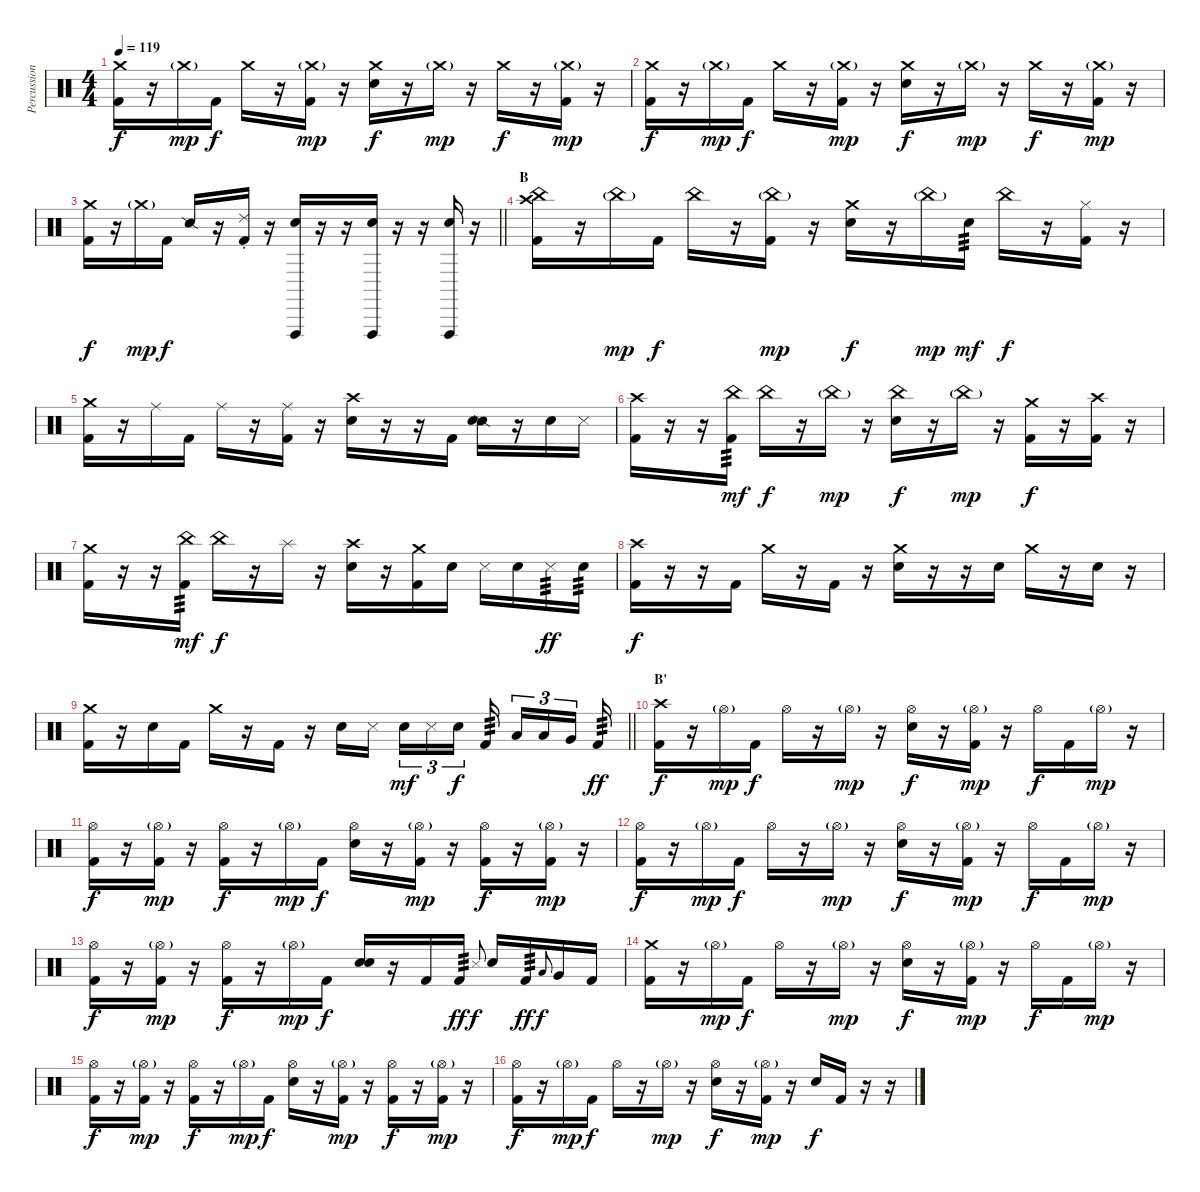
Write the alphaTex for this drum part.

\track ("Percussion" "Percussion") {instrument percussion}
\staff {score}
\articulation defaults
\ts (4 4)
\tempo 119
\clef neutral
\ks c
("Crash medium (hit)" "Kick (hit) 2").16{dy f} r.16 "Crash medium (hit)"{g}.16{dy mp} "Kick (hit) 2".16{dy f} "Crash medium (hit)".16 r.16 ("Crash medium (hit)"{g} "Kick (hit) 2").16{dy mp} r.16 ("Crash medium (hit)" "Snare (hit) 2").16{dy f} r.16 "Crash medium (hit)"{g}.16{dy mp} r.16 "Crash medium (hit)".16{dy f} r.16 ("Crash medium (hit)"{g} "Kick (hit) 2").16{dy mp} r.16 |
("Crash medium (hit)" "Kick (hit) 2").16{dy f} r.16 "Crash medium (hit)"{g}.16{dy mp} "Kick (hit) 2".16{dy f} "Crash medium (hit)".16 r.16 ("Crash medium (hit)"{g} "Kick (hit) 2").16{dy mp} r.16 ("Crash medium (hit)" "Snare (hit) 2").16{dy f} r.16 "Crash medium (hit)"{g}.16{dy mp} r.16 "Crash medium (hit)".16{dy f} r.16 ("Crash medium (hit)"{g} "Kick (hit) 2").16{dy mp} r.16 |
\barLineRight lightlight
("Crash medium (hit)" "Kick (hit) 2").16{dy f} r.16 "Crash medium (hit)"{g}.16{dy mp} "Kick (hit) 2".16{dy f} "Snare (side stick) 2".16 r.16 ("Ride (choke) 2" "Kick (hit) 2").16 r.16 ("Vibraslap (hit)" "Snare (hit) 2").16 r.16 r.16 ("Vibraslap (hit)" "Snare (hit) 2").16 r.16 r.16 ("Vibraslap (hit)" "Snare (hit) 2").16 r.16 |
\section ("" "B")
("Crash high (hit)" "China (hit)" "Kick (hit) 2").16 r.16 "China (hit)"{g}.16{dy mp} "Kick (hit) 2".16{dy f} "China (hit)".16 r.16 ("China (hit)"{g} "Kick (hit) 2").16{dy mp} r.16 ("Crash medium (hit)" "Snare (hit) 2").16{dy f} r.16 "China (hit)"{g}.16{dy mp} "Snare (hit) 2".16{tp 3 dy mf} "China (hit)".16{dy f} r.16 ("Hi-Hat (closed)" "Kick (hit) 2").16 r.16 |
("Crash medium (hit)" "Kick (hit) 2").16 r.16 "Ride (middle)".16 "Kick (hit) 2".16 "Ride (middle)".16 r.16 ("Ride (middle)" "Kick (hit) 2").16 r.16 ("Crash high (hit)" "Snare (hit) 2").16 r.16 r.16 "Kick (hit) 2".16 ("Snare (side stick) 2" "Snare (hit) 2").16 r.16 "Snare (hit) 2".16 "Metronome (hit)".16 |
("Crash high (hit)" "Kick (hit) 2").16 r.16 r.16 ("China (hit)" "Kick (hit) 2").16{tp 3 dy mf} "China (hit)".16{dy f} r.16 "China (hit)"{g}.16{dy mp} r.16 ("China (hit)" "Snare (hit) 2").16{dy f} r.16 "China (hit)"{g}.16{dy mp} r.16 ("Crash medium (hit)" "Kick (hit) 2").16{dy f} r.16 ("Crash high (hit)" "Kick (hit) 2").16 r.16 |
("Crash medium (hit)" "Kick (hit) 2").16 r.16 r.16 ("China (hit)" "Kick (hit) 2").16{tp 3 dy mf} "China (hit)".16{dy f} r.16 "Splash (hit)".16 r.16 ("Crash high (hit)" "Snare (hit) 2").16 r.16 ("Crash medium (hit)" "Kick (hit) 2").16 "Snare (hit) 2".16 "Metronome (hit)".16 "Snare (hit) 2".16 "Metronome (hit)".16{tp 3 dy ff} "Snare (hit) 2".16{tp 3} |
("Crash high (hit)" "Kick (hit) 2").16{dy f} r.16 r.16 "Kick (hit) 2".16 "Crash medium (hit)".16 r.16 "Kick (hit) 2".16 r.16 ("Crash medium (hit)" "Snare (hit) 2").16 r.16 r.16 "Snare (hit) 2".16 "Crash medium (hit)".16 r.16 "Snare (hit) 2".16 r.16 |
\barLineRight lightlight
("Crash medium (hit)" "Kick (hit) 2").16 r.16 "Snare (hit) 2".16 "Kick (hit) 2".16 "Crash medium (hit)".16 r.16 "Kick (hit) 2".16 r.16 "Snare (hit) 2".16 "Metronome (hit)".16{beam splitsecondary} "Snare (hit) 2".16{tu (3 2) dy mf} "Metronome (hit)".16{tu (3 2)} "Snare (hit) 2".16{tu (3 2) dy f} "Kick (hit) 2".16{tp 3 beam splitsecondary} "Low Tom (hit)".16{tu (3 2)} "Low Tom (hit)".16{tu (3 2)} "Very Low Tom (hit)".16{tu (3 2) beam splitsecondary} "Kick (hit) 2".16{tp 3 dy ff} |
\section ("" "B'")
("Crash high (hit)" "Kick (hit) 2").16{dy f} r.16 "Hi-Hat (open)"{g}.16{dy mp} "Kick (hit) 2".16{dy f} "Hi-Hat (open)".16 r.16 "Hi-Hat (open)"{g}.16{dy mp} r.16 ("Hi-Hat (open)" "Snare (hit) 2").16{dy f} r.16 ("Hi-Hat (open)"{g} "Kick (hit) 2").16{dy mp} r.16 "Hi-Hat (open)".16{dy f} "Kick (hit) 2".16 "Hi-Hat (open)"{g}.16{dy mp} r.16 |
("Hi-Hat (open)" "Kick (hit) 2").16{dy f} r.16 ("Hi-Hat (open)"{g} "Kick (hit) 2").16{dy mp} r.16 ("Hi-Hat (open)" "Kick (hit) 2").16{dy f} r.16 "Hi-Hat (open)"{g}.16{dy mp} "Kick (hit) 2".16{dy f} ("Hi-Hat (open)" "Snare (hit) 2").16 r.16 ("Hi-Hat (open)"{g} "Kick (hit) 2").16{dy mp} r.16 ("Hi-Hat (open)" "Kick (hit) 2").16{dy f} r.16 ("Hi-Hat (open)"{g} "Kick (hit) 2").16{dy mp} r.16 |
("Hi-Hat (open)" "Kick (hit) 2").16{dy f} r.16 "Hi-Hat (open)"{g}.16{dy mp} "Kick (hit) 2".16{dy f} "Hi-Hat (open)".16 r.16 "Hi-Hat (open)"{g}.16{dy mp} r.16 ("Hi-Hat (open)" "Snare (hit) 2").16{dy f} r.16 ("Hi-Hat (open)"{g} "Kick (hit) 2").16{dy mp} r.16 "Hi-Hat (open)".16{dy f} "Kick (hit) 2".16 "Hi-Hat (open)"{g}.16{dy mp} r.16 |
("Hi-Hat (open)" "Kick (hit) 2").16{dy f} r.16 ("Hi-Hat (open)"{g} "Kick (hit) 2").16{dy mp} r.16 ("Hi-Hat (open)" "Kick (hit) 2").16{dy f} r.16 "Hi-Hat (open)"{g}.16{dy mp} "Kick (hit) 2".16{dy f} ("Snare (hit)" "Snare (hit) 2").16 r.16 "Kick (hit) 2".16 "Kick (hit) 2".16{tp 3 dy ff} "Metronome (hit)".8{gr onbeat dy f} "Snare (hit) 2".16 "Kick (hit) 2".16{tp 3 dy ff} "Low Tom (hit)".8{gr onbeat dy f} "Very Low Tom (hit)".16 "Kick (hit) 2".16 |
("Crash medium (hit)" "Kick (hit) 2").16 r.16 "Hi-Hat (open)"{g}.16{dy mp} "Kick (hit) 2".16{dy f} "Hi-Hat (open)".16 r.16 "Hi-Hat (open)"{g}.16{dy mp} r.16 ("Hi-Hat (open)" "Snare (hit) 2").16{dy f} r.16 ("Hi-Hat (open)"{g} "Kick (hit) 2").16{dy mp} r.16 "Hi-Hat (open)".16{dy f} "Kick (hit) 2".16 "Hi-Hat (open)"{g}.16{dy mp} r.16 |
("Hi-Hat (open)" "Kick (hit) 2").16{dy f} r.16 ("Hi-Hat (open)"{g} "Kick (hit) 2").16{dy mp} r.16 ("Hi-Hat (open)" "Kick (hit) 2").16{dy f} r.16 "Hi-Hat (open)"{g}.16{dy mp} "Kick (hit) 2".16{dy f} ("Hi-Hat (open)" "Snare (hit) 2").16 r.16 ("Hi-Hat (open)"{g} "Kick (hit) 2").16{dy mp} r.16 ("Hi-Hat (open)" "Kick (hit) 2").16{dy f} r.16 ("Hi-Hat (open)"{g} "Kick (hit) 2").16{dy mp} r.16 |
("Hi-Hat (open)" "Kick (hit) 2").16{dy f} r.16 "Hi-Hat (open)"{g}.16{dy mp} "Kick (hit) 2".16{dy f} "Hi-Hat (open)".16 r.16 "Hi-Hat (open)"{g}.16{dy mp} r.16 ("Hi-Hat (open)" "Snare (hit) 2").16{dy f} r.16 ("Hi-Hat (open)"{g} "Kick (hit) 2").16{dy mp} r.16 "Snare (hit)".16{dy f} "Kick (hit) 2".16 r.16 r.16
